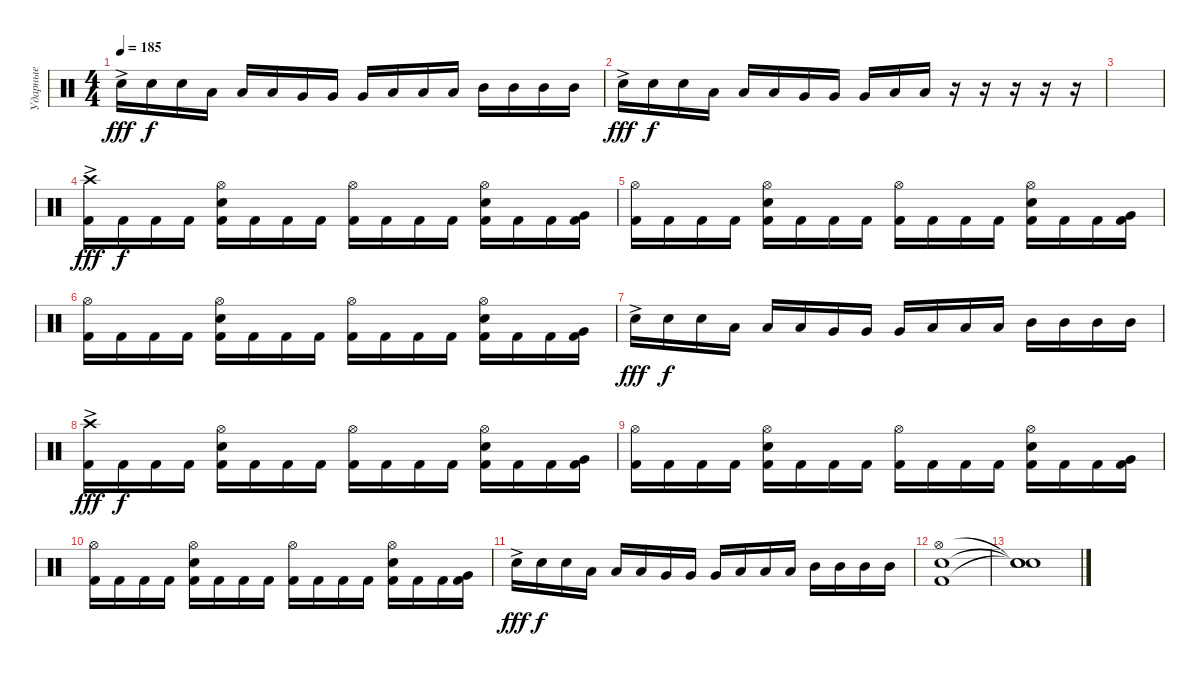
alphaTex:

\track ("Ударные" "Ударные") {instrument percussion}
\staff {score}
\articulation defaults
\ts (4 4)
\tempo 185
\clef neutral
\ks c "Electric Snare (hit)"{ac}.16{dy fff} "Electric Snare (hit)".16{dy f} "Electric Snare (hit)".16 "Low Floor Tom (hit)".16 "Low Floor Tom (hit)".16 "Low Floor Tom (hit)".16 "Very Low Tom (hit)".16 "Very Low Tom (hit)".16 "Very Low Tom (hit)".16 "Low Tom (hit)".16 "Low Tom (hit)".16 "Low Tom (hit)".16 "Mid Tom (hit)".16 "Mid Tom (hit)".16 "Mid Tom (hit)".16 "Mid Tom (hit)".16
|
"Electric Snare (hit)"{ac}.16{dy fff} "Electric Snare (hit)".16{dy f} "Electric Snare (hit)".16 "Low Floor Tom (hit)".16 "Low Floor Tom (hit)".16 "Low Floor Tom (hit)".16 "Very Low Tom (hit)".16 "Very Low Tom (hit)".16 "Very Low Tom (hit)".16 "Low Tom (hit)".16 "Low Tom (hit)".16 r.16 r.16 r.16 r.16 r.16 |
|
("Crash high (hit)"{ac} "Kick (hit) 2").16{dy fff} "Kick (hit) 2".16{dy f} "Kick (hit) 2".16 "Kick (hit) 2".16 ("Hi-Hat (open)" "Electric Snare (hit)" "Kick (hit) 2").16 "Kick (hit) 2".16 "Kick (hit) 2".16 "Kick (hit) 2".16 ("Hi-Hat (open)" "Kick (hit) 2").16 "Kick (hit) 2".16 "Kick (hit) 2".16 "Kick (hit) 2".16 ("Hi-Hat (open)" "Electric Snare (hit)" "Kick (hit) 2").16 "Kick (hit) 2".16 "Kick (hit) 2".16 ("Very Low Tom (hit)" "Kick (hit) 2").16 |
("Hi-Hat (open)" "Kick (hit) 2").16 "Kick (hit) 2".16 "Kick (hit) 2".16 "Kick (hit) 2".16 ("Hi-Hat (open)" "Electric Snare (hit)" "Kick (hit) 2").16 "Kick (hit) 2".16 "Kick (hit) 2".16 "Kick (hit) 2".16 ("Hi-Hat (open)" "Kick (hit) 2").16 "Kick (hit) 2".16 "Kick (hit) 2".16 "Kick (hit) 2".16 ("Hi-Hat (open)" "Electric Snare (hit)" "Kick (hit) 2").16 "Kick (hit) 2".16 "Kick (hit) 2".16 ("Very Low Tom (hit)" "Kick (hit) 2").16 |
("Hi-Hat (open)" "Kick (hit) 2").16 "Kick (hit) 2".16 "Kick (hit) 2".16 "Kick (hit) 2".16 ("Hi-Hat (open)" "Electric Snare (hit)" "Kick (hit) 2").16 "Kick (hit) 2".16 "Kick (hit) 2".16 "Kick (hit) 2".16 ("Hi-Hat (open)" "Kick (hit) 2").16 "Kick (hit) 2".16 "Kick (hit) 2".16 "Kick (hit) 2".16 ("Hi-Hat (open)" "Electric Snare (hit)" "Kick (hit) 2").16 "Kick (hit) 2".16 "Kick (hit) 2".16 ("Very Low Tom (hit)" "Kick (hit) 2").16 |
"Electric Snare (hit)"{ac}.16{dy fff} "Electric Snare (hit)".16{dy f} "Electric Snare (hit)".16 "Low Floor Tom (hit)".16 "Low Floor Tom (hit)".16 "Low Floor Tom (hit)".16 "Very Low Tom (hit)".16 "Very Low Tom (hit)".16 "Very Low Tom (hit)".16 "Low Tom (hit)".16 "Low Tom (hit)".16 "Low Tom (hit)".16 "Mid Tom (hit)".16 "Mid Tom (hit)".16 "Mid Tom (hit)".16 "Mid Tom (hit)".16 |
("Crash high (hit)"{ac} "Kick (hit) 2").16{dy fff} "Kick (hit) 2".16{dy f} "Kick (hit) 2".16 "Kick (hit) 2".16 ("Hi-Hat (open)" "Electric Snare (hit)" "Kick (hit) 2").16 "Kick (hit) 2".16 "Kick (hit) 2".16 "Kick (hit) 2".16 ("Hi-Hat (open)" "Kick (hit) 2").16 "Kick (hit) 2".16 "Kick (hit) 2".16 "Kick (hit) 2".16 ("Hi-Hat (open)" "Electric Snare (hit)" "Kick (hit) 2").16 "Kick (hit) 2".16 "Kick (hit) 2".16 ("Very Low Tom (hit)" "Kick (hit) 2").16 |
("Hi-Hat (open)" "Kick (hit) 2").16 "Kick (hit) 2".16 "Kick (hit) 2".16 "Kick (hit) 2".16 ("Hi-Hat (open)" "Electric Snare (hit)" "Kick (hit) 2").16 "Kick (hit) 2".16 "Kick (hit) 2".16 "Kick (hit) 2".16 ("Hi-Hat (open)" "Kick (hit) 2").16 "Kick (hit) 2".16 "Kick (hit) 2".16 "Kick (hit) 2".16 ("Hi-Hat (open)" "Electric Snare (hit)" "Kick (hit) 2").16 "Kick (hit) 2".16 "Kick (hit) 2".16 ("Very Low Tom (hit)" "Kick (hit) 2").16 |
("Hi-Hat (open)" "Kick (hit) 2").16 "Kick (hit) 2".16 "Kick (hit) 2".16 "Kick (hit) 2".16 ("Hi-Hat (open)" "Electric Snare (hit)" "Kick (hit) 2").16 "Kick (hit) 2".16 "Kick (hit) 2".16 "Kick (hit) 2".16 ("Hi-Hat (open)" "Kick (hit) 2").16 "Kick (hit) 2".16 "Kick (hit) 2".16 "Kick (hit) 2".16 ("Hi-Hat (open)" "Electric Snare (hit)" "Kick (hit) 2").16 "Kick (hit) 2".16 "Kick (hit) 2".16 ("Very Low Tom (hit)" "Kick (hit) 2").16 |
"Electric Snare (hit)"{ac}.16{dy fff} "Electric Snare (hit)".16{dy f} "Electric Snare (hit)".16 "Low Floor Tom (hit)".16 "Low Floor Tom (hit)".16 "Low Floor Tom (hit)".16 "Very Low Tom (hit)".16 "Very Low Tom (hit)".16 "Very Low Tom (hit)".16 "Low Tom (hit)".16 "Low Tom (hit)".16 "Low Tom (hit)".16 "Mid Tom (hit)".16 "Mid Tom (hit)".16 "Mid Tom (hit)".16 "Mid Tom (hit)".16 |
("Hi-Hat (open)" "Electric Snare (hit)" "Kick (hit) 2").1 |
("Snare (hit)"{t} "Snare (hit)"{t} "Snare (hit)"{t}).1
